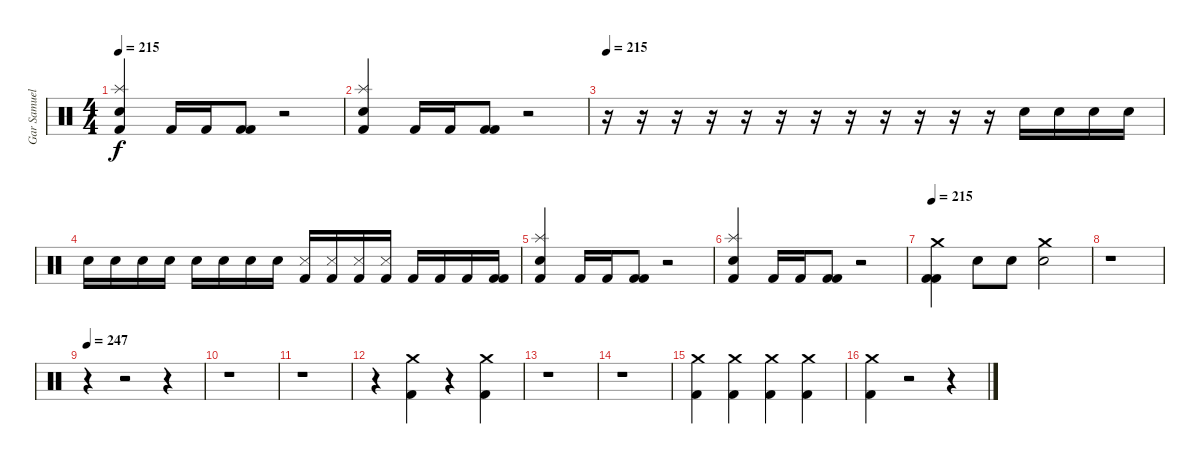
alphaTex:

\track ("Gar Samuelson (Drums)" "Gar Samuel") {instrument percussion}
\staff {score}
\articulation defaults
\ts (4 4)
\tempo 215
\clef neutral
\ks c
("Electric Snare (hit)" "Splash (hit)" "Kick (hit) 2").4{dy f} "Kick (hit) 2".16 "Kick (hit) 2".16 ("Kick (hit) 2" "Kick (hit) 2").8 r.2 |
("Electric Snare (hit)" "Splash (hit)" "Kick (hit) 2").4 "Kick (hit) 2".16 "Kick (hit) 2".16 ("Kick (hit) 2" "Kick (hit) 2").8 r.2 |
\tempo 215
r.16 r.16 r.16 r.16 r.16 r.16 r.16 r.16 r.16 r.16 r.16 r.16 "Electric Snare (hit)".16 "Electric Snare (hit)".16 "Electric Snare (hit)".16 "Electric Snare (hit)".16 |
"Electric Snare (hit)".16 "Electric Snare (hit)".16 "Electric Snare (hit)".16 "Electric Snare (hit)".16 "Snare (hit) 2".16 "Snare (hit) 2".16 "Snare (hit) 2".16 "Snare (hit) 2".16 ("Snare (side stick) 3" "Kick (hit) 2").16 ("Snare (side stick) 3" "Kick (hit) 2").16 ("Snare (side stick) 3" "Kick (hit) 2").16 ("Snare (side stick) 3" "Kick (hit) 2").16 "Kick (hit) 2".16 "Kick (hit) 2".16 "Kick (hit) 2".16 ("Kick (hit) 2" "Kick (hit) 2").16 |
("Electric Snare (hit)" "Splash (hit)" "Kick (hit) 2").4 "Kick (hit) 2".16 "Kick (hit) 2".16 ("Kick (hit) 2" "Kick (hit) 2").8 r.2 |
("Electric Snare (hit)" "Splash (hit)" "Kick (hit) 2").4 "Kick (hit) 2".16 "Kick (hit) 2".16 ("Kick (hit) 2" "Kick (hit) 2").8 r.2 |
\tempo 215
("Kick (hit) 2" "Crash medium (hit)" "Kick (hit) 2").4 "Electric Snare (hit)".8 "Electric Snare (hit)".8 ("Electric Snare (hit)" "Crash medium (hit)").2 |
r.1 |
\tempo 247
r.4 r.2 r.4 |
r.1 |
r.1 |
r.4 ("Kick (hit) 2" "Crash medium (hit)").4 r.4 ("Kick (hit) 2" "Crash medium (hit)").4 |
r.1 |
r.1 |
("Kick (hit) 2" "Crash medium (hit)").4 ("Kick (hit) 2" "Crash medium (hit)").4 ("Kick (hit) 2" "Crash medium (hit)").4 ("Kick (hit) 2" "Crash medium (hit)").4 |
("Kick (hit) 2" "Crash medium (hit)").4 r.2 r.4
